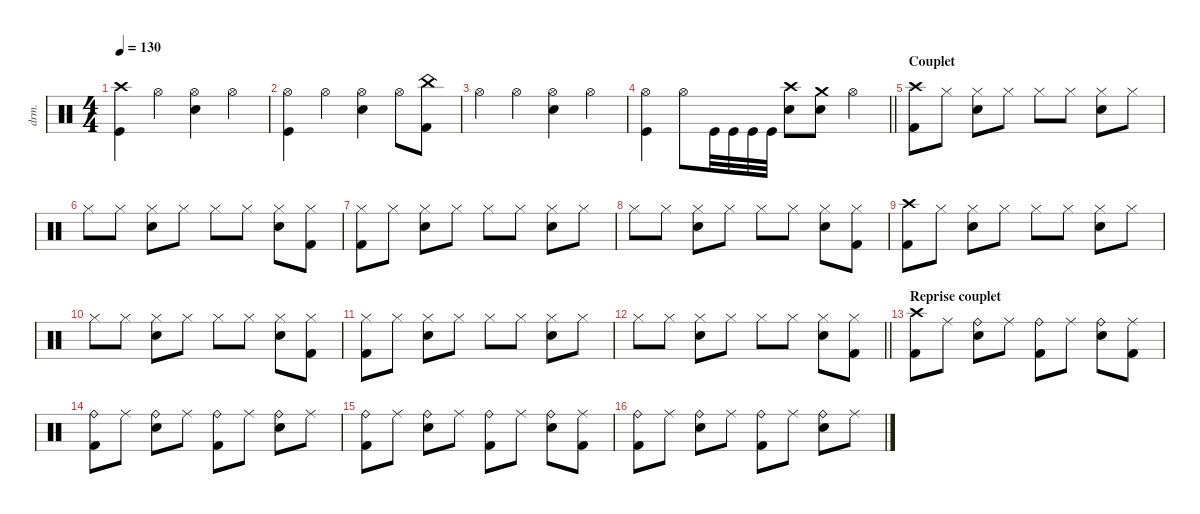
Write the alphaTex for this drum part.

\defaultSystemsLayout 4
\hideDynamics
\bracketExtendMode nobrackets
\otherSystemsTrackNameOrientation horizontal
\track ("Manouche" "drm.") {instrument percussion}
\staff {score}
\articulation defaults
\ts (4 4)
\tempo 130
\clef neutral
\ks c
("Crash high (hit)" "Kick (hit)").4{dy f} "Hi-Hat (open)".4 ("Hi-Hat (open)" "Snare (hit) 2").4 "Hi-Hat (open)".4 |
("Hi-Hat (open)" "Kick (hit)").4 "Hi-Hat (open)".4 ("Hi-Hat (open)" "Snare (hit) 2").4 "Hi-Hat (open)".8 ("China (hit)" "Kick (hit) 2").8 |
"Hi-Hat (open)".4 "Hi-Hat (open)".4 ("Hi-Hat (open)" "Snare (hit) 2").4 "Hi-Hat (open)".4 |
\barLineRight lightlight
("Hi-Hat (open)" "Kick (hit)").4 "Hi-Hat (open)".8 "Kick (hit)".32 "Kick (hit)".32 "Kick (hit)".32 "Kick (hit)".32 ("Snare (hit) 2" "Crash high (hit)").8 ("Crash medium (hit)" "Snare (hit) 2").8 "Hi-Hat (open)".4 |
\section ("" "Couplet")
("Crash high (hit)" "Kick (hit) 2").8 "Hi-Hat (closed)".8{dy mp} ("Hi-Hat (closed)" "Snare (hit) 2").8{dy f} "Hi-Hat (closed)".8{dy mp} "Hi-Hat (closed)".8{dy f} "Hi-Hat (closed)".8{dy mp} ("Hi-Hat (closed)" "Snare (hit) 2").8{dy f} "Hi-Hat (closed)".8{dy mp} |
"Hi-Hat (closed)".8{dy f} "Hi-Hat (closed)".8{dy mp} ("Hi-Hat (closed)" "Snare (hit) 2").8{dy f} "Hi-Hat (closed)".8{dy mp} "Hi-Hat (closed)".8{dy f} "Hi-Hat (closed)".8{dy mp} ("Hi-Hat (closed)" "Snare (hit) 2").8{dy f} ("Hi-Hat (closed)" "Kick (hit) 2").8{dy mp} |
("Hi-Hat (closed)" "Kick (hit) 2").8 "Hi-Hat (closed)".8 ("Hi-Hat (closed)" "Snare (hit) 2").8{dy f} "Hi-Hat (closed)".8{dy mp} "Hi-Hat (closed)".8{dy f} "Hi-Hat (closed)".8{dy mp} ("Hi-Hat (closed)" "Snare (hit) 2").8{dy f} "Hi-Hat (closed)".8{dy mp} |
"Hi-Hat (closed)".8{dy f} "Hi-Hat (closed)".8{dy mp} ("Hi-Hat (closed)" "Snare (hit) 2").8{dy f} "Hi-Hat (closed)".8{dy mp} "Hi-Hat (closed)".8{dy f} "Hi-Hat (closed)".8{dy mp} ("Hi-Hat (closed)" "Snare (hit) 2").8{dy f} ("Hi-Hat (closed)" "Kick (hit) 2").8{dy mp} |
("Crash high (hit)" "Kick (hit) 2").8{dy f} "Hi-Hat (closed)".8{dy mp} ("Hi-Hat (closed)" "Snare (hit) 2").8{dy f} "Hi-Hat (closed)".8{dy mp} "Hi-Hat (closed)".8{dy f} "Hi-Hat (closed)".8{dy mp} ("Hi-Hat (closed)" "Snare (hit) 2").8{dy f} "Hi-Hat (closed)".8{dy mp} |
"Hi-Hat (closed)".8{dy f} "Hi-Hat (closed)".8{dy mp} ("Hi-Hat (closed)" "Snare (hit) 2").8{dy f} "Hi-Hat (closed)".8{dy mp} "Hi-Hat (closed)".8{dy f} "Hi-Hat (closed)".8{dy mp} ("Hi-Hat (closed)" "Snare (hit) 2").8{dy f} ("Hi-Hat (closed)" "Kick (hit) 2").8{dy mp} |
("Hi-Hat (closed)" "Kick (hit) 2").8 "Hi-Hat (closed)".8 ("Hi-Hat (closed)" "Snare (hit) 2").8{dy f} "Hi-Hat (closed)".8{dy mp} "Hi-Hat (closed)".8{dy f} "Hi-Hat (closed)".8{dy mp} ("Hi-Hat (closed)" "Snare (hit) 2").8{dy f} "Hi-Hat (closed)".8{dy mp} |
\barLineRight lightlight "Hi-Hat (closed)".8{dy f} "Hi-Hat (closed)".8{dy mp}
("Hi-Hat (closed)" "Snare (hit) 2").8{dy f} "Hi-Hat (closed)".8{dy mp} "Hi-Hat (closed)".8{dy f} "Hi-Hat (closed)".8{dy mp} ("Hi-Hat (closed)" "Snare (hit) 2").8{dy f} ("Hi-Hat (closed)" "Kick (hit) 2").8{dy mp} |
\section ("" "Reprise couplet")
("Crash high (hit)" "Kick (hit) 2").8{dy f} "Ride (middle)".8{dy mf} ("Ride (bell)" "Snare (hit) 2").8{dy f} "Ride (middle)".8{dy mf} ("Ride (bell)" "Kick (hit) 2").8{dy f} "Ride (middle)".8{dy mf} ("Ride (bell)" "Snare (hit) 2").8{dy f} ("Ride (middle)" "Kick (hit) 2").8{dy mf} |
("Ride (bell)" "Kick (hit) 2").8{dy f} "Ride (middle)".8{dy mf} ("Ride (bell)" "Snare (hit) 2").8{dy f} "Ride (middle)".8{dy mf} ("Ride (bell)" "Kick (hit) 2").8{dy f} "Ride (middle)".8{dy mf} ("Ride (bell)" "Snare (hit) 2").8{dy f} "Ride (middle)".8{dy mf} |
("Ride (bell)" "Kick (hit) 2").8{dy f} "Ride (middle)".8{dy mf} ("Ride (bell)" "Snare (hit) 2").8{dy f} "Ride (middle)".8{dy mf} ("Ride (bell)" "Kick (hit) 2").8{dy f} "Ride (middle)".8{dy mf} ("Ride (bell)" "Snare (hit) 2").8{dy f} ("Ride (middle)" "Kick (hit) 2").8{dy mf} |
("Ride (bell)" "Kick (hit) 2").8{dy f} "Ride (middle)".8{dy mf} ("Ride (bell)" "Snare (hit) 2").8{dy f} "Ride (middle)".8{dy mf} ("Ride (bell)" "Kick (hit) 2").8{dy f} "Ride (middle)".8{dy mf} ("Ride (bell)" "Snare (hit) 2").8{dy f} "Ride (middle)".8{dy mf}
